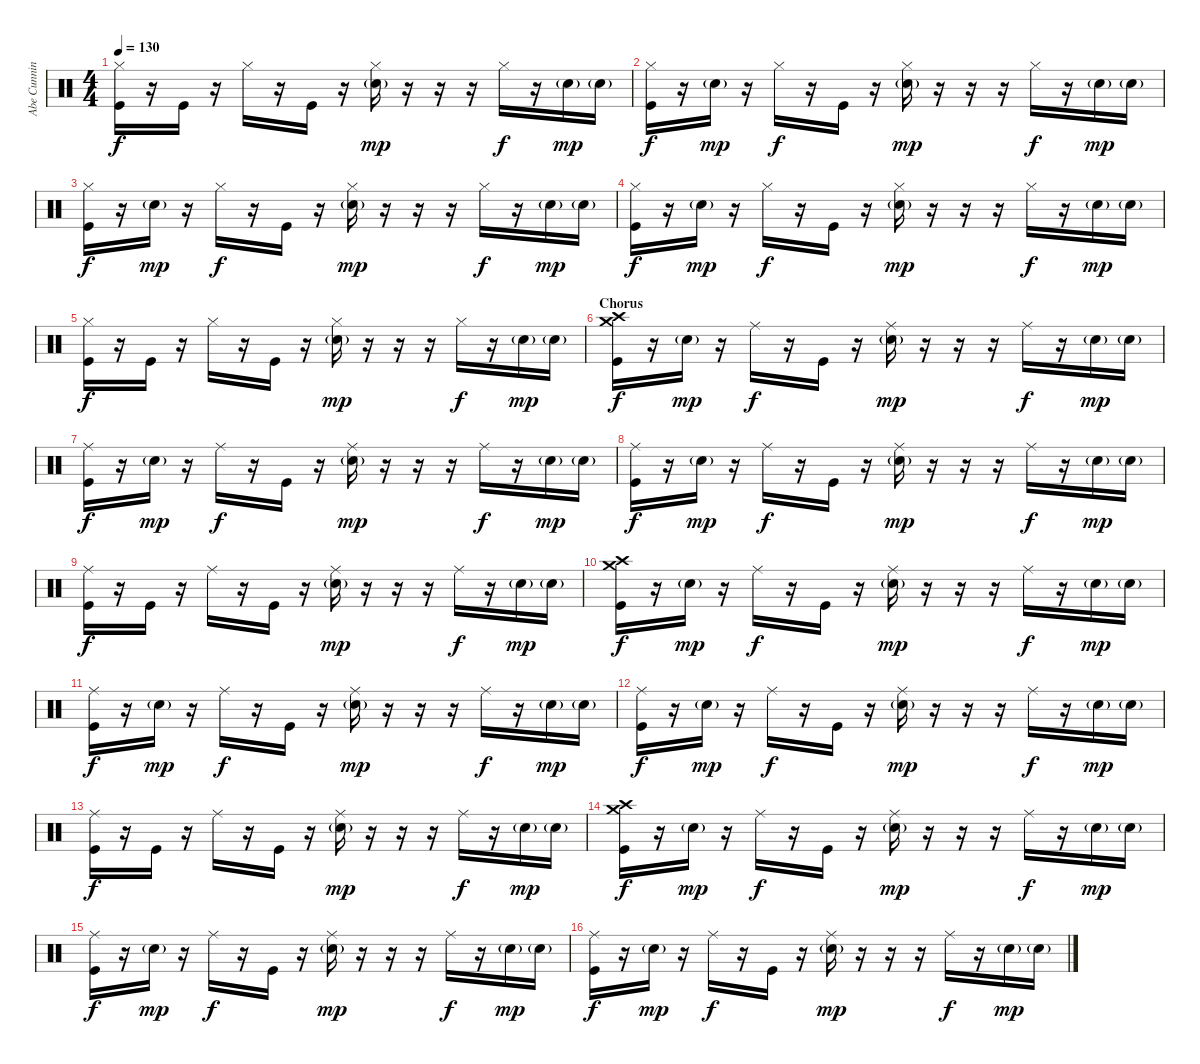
\track ("Abe Cunningham" "Abe Cunnin") {instrument percussion}
\staff {score}
\articulation defaults
\ts (4 4)
\tempo 130
\clef neutral
\ks c
("Hi-Hat (closed)" "Kick (hit)").16{dy f} r.16 "Kick (hit)".16 r.16 "Hi-Hat (closed)".16 r.16 "Kick (hit)".16 r.16 ("Hi-Hat (closed)" "Electric Snare (hit)"{g}).16{dy mp} r.16 r.16 r.16 "Hi-Hat (closed)".16{dy f} r.16 "Electric Snare (hit)"{g}.16{dy mp} "Electric Snare (hit)"{g}.16 |
("Hi-Hat (closed)" "Kick (hit)").16{dy f} r.16 "Electric Snare (hit)"{g}.16{dy mp} r.16 "Hi-Hat (closed)".16{dy f} r.16 "Kick (hit)".16 r.16 ("Hi-Hat (closed)" "Electric Snare (hit)"{g}).16{dy mp} r.16 r.16 r.16 "Hi-Hat (closed)".16{dy f} r.16 "Electric Snare (hit)"{g}.16{dy mp} "Electric Snare (hit)"{g}.16 |
("Hi-Hat (closed)" "Kick (hit)").16{dy f} r.16 "Electric Snare (hit)"{g}.16{dy mp} r.16 "Hi-Hat (closed)".16{dy f} r.16 "Kick (hit)".16 r.16 ("Hi-Hat (closed)" "Electric Snare (hit)"{g}).16{dy mp} r.16 r.16 r.16 "Hi-Hat (closed)".16{dy f} r.16 "Electric Snare (hit)"{g}.16{dy mp} "Electric Snare (hit)"{g}.16 |
("Hi-Hat (closed)" "Kick (hit)").16{dy f} r.16 "Electric Snare (hit)"{g}.16{dy mp} r.16 "Hi-Hat (closed)".16{dy f} r.16 "Kick (hit)".16 r.16 ("Hi-Hat (closed)" "Electric Snare (hit)"{g}).16{dy mp} r.16 r.16 r.16 "Hi-Hat (closed)".16{dy f} r.16 "Electric Snare (hit)"{g}.16{dy mp} "Electric Snare (hit)"{g}.16 |
("Hi-Hat (closed)" "Kick (hit)").16{dy f} r.16 "Kick (hit)".16 r.16 "Hi-Hat (closed)".16 r.16 "Kick (hit)".16 r.16 ("Hi-Hat (closed)" "Electric Snare (hit)"{g}).16{dy mp} r.16 r.16 r.16 "Hi-Hat (closed)".16{dy f} r.16 "Electric Snare (hit)"{g}.16{dy mp} "Electric Snare (hit)"{g}.16 |
\section ("" "Chorus")
("Crash high (hit)" "Crash medium (hit)" "Kick (hit)").16{dy f} r.16 "Electric Snare (hit)"{g}.16{dy mp} r.16 "Ride (middle)".16{dy f} r.16 "Kick (hit)".16 r.16 ("Ride (middle)" "Electric Snare (hit)"{g}).16{dy mp} r.16 r.16 r.16 "Ride (middle)".16{dy f} r.16 "Electric Snare (hit)"{g}.16{dy mp} "Electric Snare (hit)"{g}.16 |
("Ride (middle)" "Kick (hit)").16{dy f} r.16 "Electric Snare (hit)"{g}.16{dy mp} r.16 "Ride (middle)".16{dy f} r.16 "Kick (hit)".16 r.16 ("Ride (middle)" "Electric Snare (hit)"{g}).16{dy mp} r.16 r.16 r.16 "Ride (middle)".16{dy f} r.16 "Electric Snare (hit)"{g}.16{dy mp} "Electric Snare (hit)"{g}.16 |
("Ride (middle)" "Kick (hit)").16{dy f} r.16 "Electric Snare (hit)"{g}.16{dy mp} r.16 "Ride (middle)".16{dy f} r.16 "Kick (hit)".16 r.16 ("Ride (middle)" "Electric Snare (hit)"{g}).16{dy mp} r.16 r.16 r.16 "Ride (middle)".16{dy f} r.16 "Electric Snare (hit)"{g}.16{dy mp} "Electric Snare (hit)"{g}.16 |
("Ride (middle)" "Kick (hit)").16{dy f} r.16 "Kick (hit)".16 r.16 "Ride (middle)".16 r.16 "Kick (hit)".16 r.16 ("Ride (middle)" "Electric Snare (hit)"{g}).16{dy mp} r.16 r.16 r.16 "Ride (middle)".16{dy f} r.16 "Electric Snare (hit)"{g}.16{dy mp} "Electric Snare (hit)"{g}.16 |
("Crash high (hit)" "Crash medium (hit)" "Kick (hit)").16{dy f} r.16 "Electric Snare (hit)"{g}.16{dy mp} r.16 "Ride (middle)".16{dy f} r.16 "Kick (hit)".16 r.16 ("Ride (middle)" "Electric Snare (hit)"{g}).16{dy mp} r.16 r.16 r.16 "Ride (middle)".16{dy f} r.16 "Electric Snare (hit)"{g}.16{dy mp} "Electric Snare (hit)"{g}.16 |
("Ride (middle)" "Kick (hit)").16{dy f} r.16 "Electric Snare (hit)"{g}.16{dy mp} r.16 "Ride (middle)".16{dy f} r.16 "Kick (hit)".16 r.16 ("Ride (middle)" "Electric Snare (hit)"{g}).16{dy mp} r.16 r.16 r.16 "Ride (middle)".16{dy f} r.16 "Electric Snare (hit)"{g}.16{dy mp} "Electric Snare (hit)"{g}.16 |
("Ride (middle)" "Kick (hit)").16{dy f} r.16 "Electric Snare (hit)"{g}.16{dy mp} r.16 "Ride (middle)".16{dy f} r.16 "Kick (hit)".16 r.16 ("Ride (middle)" "Electric Snare (hit)"{g}).16{dy mp} r.16 r.16 r.16 "Ride (middle)".16{dy f} r.16 "Electric Snare (hit)"{g}.16{dy mp} "Electric Snare (hit)"{g}.16 |
("Ride (middle)" "Kick (hit)").16{dy f} r.16 "Kick (hit)".16 r.16 "Ride (middle)".16 r.16 "Kick (hit)".16 r.16 ("Ride (middle)" "Electric Snare (hit)"{g}).16{dy mp} r.16 r.16 r.16 "Ride (middle)".16{dy f} r.16 "Electric Snare (hit)"{g}.16{dy mp} "Electric Snare (hit)"{g}.16 |
("Crash high (hit)" "Crash medium (hit)" "Kick (hit)").16{dy f} r.16 "Electric Snare (hit)"{g}.16{dy mp} r.16 "Ride (middle)".16{dy f} r.16 "Kick (hit)".16 r.16 ("Ride (middle)" "Electric Snare (hit)"{g}).16{dy mp} r.16 r.16 r.16 "Ride (middle)".16{dy f} r.16 "Electric Snare (hit)"{g}.16{dy mp} "Electric Snare (hit)"{g}.16 |
("Ride (middle)" "Kick (hit)").16{dy f} r.16 "Electric Snare (hit)"{g}.16{dy mp} r.16 "Ride (middle)".16{dy f} r.16 "Kick (hit)".16 r.16 ("Ride (middle)" "Electric Snare (hit)"{g}).16{dy mp} r.16 r.16 r.16 "Ride (middle)".16{dy f} r.16 "Electric Snare (hit)"{g}.16{dy mp} "Electric Snare (hit)"{g}.16 |
("Ride (middle)" "Kick (hit)").16{dy f} r.16 "Electric Snare (hit)"{g}.16{dy mp} r.16 "Ride (middle)".16{dy f} r.16 "Kick (hit)".16 r.16 ("Ride (middle)" "Electric Snare (hit)"{g}).16{dy mp} r.16 r.16 r.16 "Ride (middle)".16{dy f} r.16 "Electric Snare (hit)"{g}.16{dy mp} "Electric Snare (hit)"{g}.16
